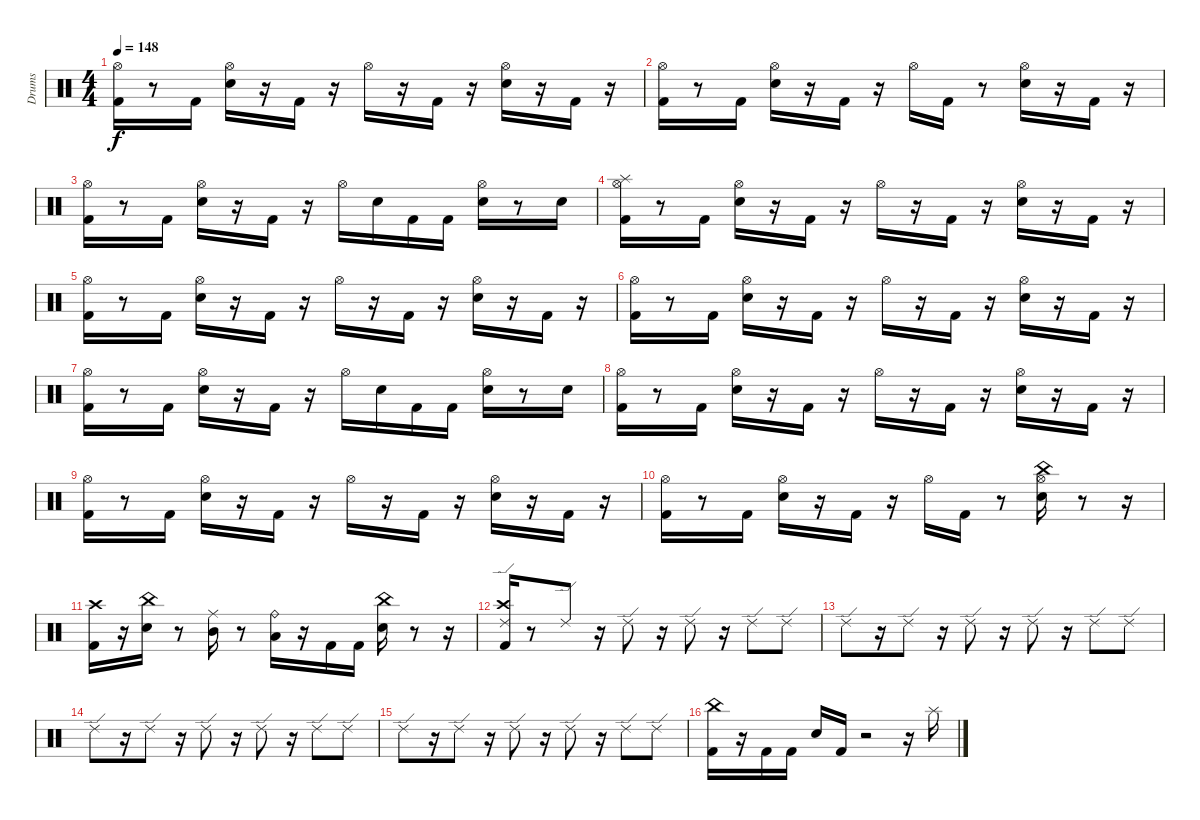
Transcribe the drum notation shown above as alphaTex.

\track ("Drums" "Drums") {instrument percussion}
\staff {score}
\articulation defaults
\ts (4 4)
\tempo 148
\clef neutral
\ks c
("Hi-Hat (open)" "Kick (hit) 2").16{dy f} r.8 "Kick (hit) 2".16 ("Hi-Hat (open)" "Snare (hit) 2").16 r.16 "Kick (hit) 2".16 r.16 "Hi-Hat (open)".16 r.16 "Kick (hit) 2".16 r.16 ("Hi-Hat (open)" "Snare (hit) 2").16 r.16 "Kick (hit) 2".16 r.16 |
("Hi-Hat (open)" "Kick (hit) 2").16 r.8 "Kick (hit) 2".16 ("Hi-Hat (open)" "Snare (hit) 2").16 r.16 "Kick (hit) 2".16 r.16 "Hi-Hat (open)".16 "Kick (hit) 2".16 r.8 ("Hi-Hat (open)" "Snare (hit) 2").16 r.16 "Kick (hit) 2".16 r.16 |
("Hi-Hat (open)" "Kick (hit) 2").16 r.8 "Kick (hit) 2".16 ("Hi-Hat (open)" "Snare (hit) 2").16 r.16 "Kick (hit) 2".16 r.16 "Hi-Hat (open)".16 "Snare (hit) 2".16 "Kick (hit) 2".16 "Kick (hit) 2".16 ("Hi-Hat (open)" "Snare (hit) 2").16 r.8 "Snare (hit) 2".16 |
("Splash (hit)" "Hi-Hat (open)" "Kick (hit) 2").16 r.8 "Kick (hit) 2".16 ("Hi-Hat (open)" "Snare (hit) 2").16 r.16 "Kick (hit) 2".16 r.16 "Hi-Hat (open)".16 r.16 "Kick (hit) 2".16 r.16 ("Hi-Hat (open)" "Snare (hit) 2").16 r.16 "Kick (hit) 2".16 r.16 |
("Hi-Hat (open)" "Kick (hit) 2").16 r.8 "Kick (hit) 2".16 ("Hi-Hat (open)" "Snare (hit) 2").16 r.16 "Kick (hit) 2".16 r.16 "Hi-Hat (open)".16 r.16 "Kick (hit) 2".16 r.16 ("Hi-Hat (open)" "Snare (hit) 2").16 r.16 "Kick (hit) 2".16 r.16 |
("Hi-Hat (open)" "Kick (hit) 2").16 r.8 "Kick (hit) 2".16 ("Hi-Hat (open)" "Snare (hit) 2").16 r.16 "Kick (hit) 2".16 r.16 "Hi-Hat (open)".16 r.16 "Kick (hit) 2".16 r.16 ("Hi-Hat (open)" "Snare (hit) 2").16 r.16 "Kick (hit) 2".16 r.16 |
("Hi-Hat (open)" "Kick (hit) 2").16 r.8 "Kick (hit) 2".16 ("Hi-Hat (open)" "Snare (hit) 2").16 r.16 "Kick (hit) 2".16 r.16 "Hi-Hat (open)".16 "Snare (hit) 2".16 "Kick (hit) 2".16 "Kick (hit) 2".16 ("Hi-Hat (open)" "Snare (hit) 2").16 r.8 "Snare (hit) 2".16 |
("Hi-Hat (open)" "Kick (hit) 2").16 r.8 "Kick (hit) 2".16 ("Hi-Hat (open)" "Snare (hit) 2").16 r.16 "Kick (hit) 2".16 r.16 "Hi-Hat (open)".16 r.16 "Kick (hit) 2".16 r.16 ("Hi-Hat (open)" "Snare (hit) 2").16 r.16 "Kick (hit) 2".16 r.16 |
("Hi-Hat (open)" "Kick (hit) 2").16 r.8 "Kick (hit) 2".16 ("Hi-Hat (open)" "Snare (hit) 2").16 r.16 "Kick (hit) 2".16 r.16 "Hi-Hat (open)".16 r.16 "Kick (hit) 2".16 r.16 ("Hi-Hat (open)" "Snare (hit) 2").16 r.16 "Kick (hit) 2".16 r.16 |
("Hi-Hat (open)" "Kick (hit) 2").16 r.8 "Kick (hit) 2".16 ("Hi-Hat (open)" "Snare (hit) 2").16 r.16 "Kick (hit) 2".16 r.16 "Hi-Hat (open)".16 "Kick (hit) 2".16 r.8 ("Hi-Hat (open)" "China (hit)" "Snare (hit) 2").16 r.8 r.16 |
("Crash high (hit)" "Kick (hit) 2").16 r.16 ("China (hit)" "Snare (hit) 2").16 r.8 ("Mid Tom (hit)" "Ride (middle)").16 r.8 ("Low Tom (hit)" "Ride (bell)").16 r.16 "Kick (hit) 2".16 "Kick (hit) 2".16 ("China (hit)" "Snare (hit) 2").16 r.8 r.16 |
("Ride (edge) 2" "Crash high (hit)" "Kick (hit) 2").16 r.8 "Ride (edge) 2".8 r.16 "Ride (edge) 2".8 r.16 "Ride (edge) 2".8 r.16 "Ride (edge) 2".8 "Ride (edge) 2".8 |
"Ride (edge) 2".8 r.16 "Ride (edge) 2".8 r.16 "Ride (edge) 2".8 r.16 "Ride (edge) 2".8 r.16 "Ride (edge) 2".8 "Ride (edge) 2".8 |
"Ride (edge) 2".8 r.16 "Ride (edge) 2".8 r.16 "Ride (edge) 2".8 r.16 "Ride (edge) 2".8 r.16 "Ride (edge) 2".8 "Ride (edge) 2".8 |
"Ride (edge) 2".8 r.16 "Ride (edge) 2".8 r.16 "Ride (edge) 2".8 r.16 "Ride (edge) 2".8 r.16 "Ride (edge) 2".8 "Ride (edge) 2".8 |
("China (hit)" "Kick (hit) 2").16 r.16 "Kick (hit) 2".16 "Kick (hit) 2".16 "Snare (hit) 2".16 "Kick (hit) 2".16 r.2 r.16 "Splash (hit)".16
